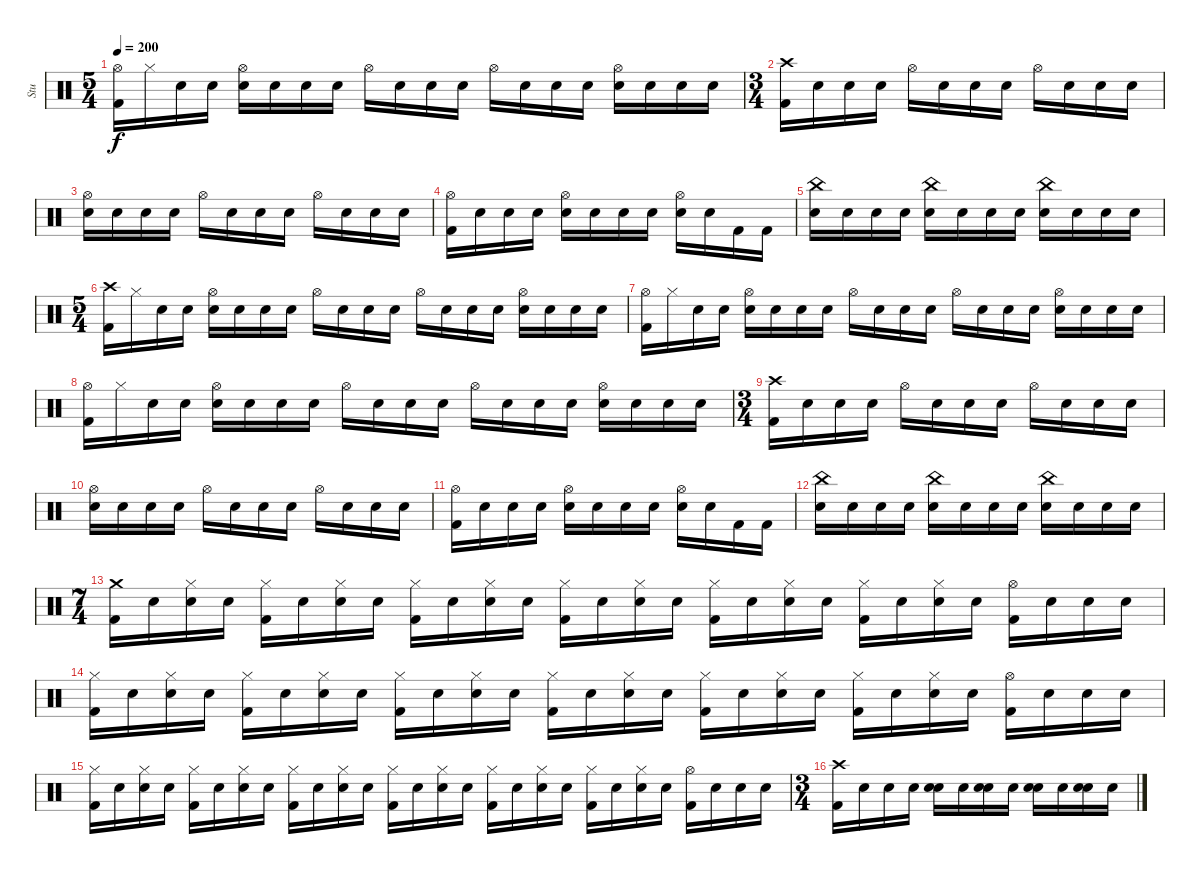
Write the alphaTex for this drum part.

\track ("Stu" "Stu") {instrument percussion}
\staff {score}
\articulation defaults
\ts (5 4)
\tempo 200
\clef neutral
\ks c
("Hi-Hat (open)" "Kick (hit) 2").16{dy f} "Hi-Hat (closed)"{x}.16 "Snare (hit)"{x}.16 "Snare (hit)"{x}.16 ("Electric Snare (hit)"{x} "Hi-Hat (open)").16 "Snare (hit)"{x}.16 "Snare (hit)"{x}.16 "Snare (hit)"{x}.16 "Hi-Hat (open)".16 "Snare (hit)"{x}.16 "Snare (hit)"{x}.16 "Snare (hit)"{x}.16 "Hi-Hat (open)".16 "Snare (hit)"{x}.16 "Snare (hit)"{x}.16 "Snare (hit)"{x}.16 ("Electric Snare (hit)" "Hi-Hat (open)").16 "Snare (hit)"{x}.16 "Snare (hit)"{x}.16 "Snare (hit)"{x}.16 |
\ts (3 4)
("Crash high (hit)" "Kick (hit) 2").16 "Snare (hit)"{x}.16 "Snare (hit)"{x}.16 "Snare (hit)"{x}.16 "Hi-Hat (open)".16 "Snare (hit)"{x}.16 "Snare (hit)"{x}.16 "Snare (hit)"{x}.16 "Hi-Hat (open)".16 "Snare (hit)"{x}.16 "Snare (hit)"{x}.16 "Snare (hit)"{x}.16 |
("Electric Snare (hit)" "Hi-Hat (open)").16 "Snare (hit)"{x}.16 "Snare (hit)"{x}.16 "Snare (hit)"{x}.16 "Hi-Hat (open)".16 "Snare (hit)"{x}.16 "Snare (hit)"{x}.16 "Snare (hit)"{x}.16 "Hi-Hat (open)".16 "Snare (hit)"{x}.16 "Snare (hit)"{x}.16 "Snare (hit)"{x}.16 |
("Hi-Hat (open)" "Kick (hit) 2").16 "Snare (hit)"{x}.16 "Snare (hit)"{x}.16 "Snare (hit)"{x}.16 ("Hi-Hat (open)" "Snare (hit)"{x}).16 "Snare (hit)"{x}.16 "Snare (hit)"{x}.16 "Snare (hit)"{x}.16 ("Hi-Hat (open)" "Snare (hit)"{x}).16 "Snare (hit)"{x}.16 "Kick (hit) 2".16 "Kick (hit) 2".16 |
("China (hit)" "Electric Snare (hit)").16 "Snare (hit)"{x}.16 "Snare (hit)"{x}.16 "Snare (hit)"{x}.16 ("China (hit)" "Electric Snare (hit)").16 "Snare (hit)"{x}.16 "Snare (hit)"{x}.16 "Snare (hit)"{x}.16 ("China (hit)" "Electric Snare (hit)").16 "Snare (hit)"{x}.16 "Snare (hit)"{x}.16 "Snare (hit)"{x}.16 |
\ts (5 4)
("Crash high (hit)" "Kick (hit) 2").16 "Hi-Hat (closed)"{x}.16 "Snare (hit)"{x}.16 "Snare (hit)"{x}.16 ("Electric Snare (hit)"{x} "Hi-Hat (open)").16 "Snare (hit)"{x}.16 "Snare (hit)"{x}.16 "Snare (hit)"{x}.16 "Hi-Hat (open)".16 "Snare (hit)"{x}.16 "Snare (hit)"{x}.16 "Snare (hit)"{x}.16 "Hi-Hat (open)".16 "Snare (hit)"{x}.16 "Snare (hit)"{x}.16 "Snare (hit)"{x}.16 ("Electric Snare (hit)" "Hi-Hat (open)").16 "Snare (hit)"{x}.16 "Snare (hit)"{x}.16 "Snare (hit)"{x}.16 |
("Hi-Hat (open)" "Kick (hit) 2").16 "Hi-Hat (closed)"{x}.16 "Snare (hit)"{x}.16 "Snare (hit)"{x}.16 ("Electric Snare (hit)"{x} "Hi-Hat (open)").16 "Snare (hit)"{x}.16 "Snare (hit)"{x}.16 "Snare (hit)"{x}.16 "Hi-Hat (open)".16 "Snare (hit)"{x}.16 "Snare (hit)"{x}.16 "Snare (hit)"{x}.16 "Hi-Hat (open)".16 "Snare (hit)"{x}.16 "Snare (hit)"{x}.16 "Snare (hit)"{x}.16 ("Electric Snare (hit)" "Hi-Hat (open)").16 "Snare (hit)"{x}.16 "Snare (hit)"{x}.16 "Snare (hit)"{x}.16 |
("Hi-Hat (open)" "Kick (hit) 2").16 "Hi-Hat (closed)"{x}.16 "Snare (hit)"{x}.16 "Snare (hit)"{x}.16 ("Electric Snare (hit)"{x} "Hi-Hat (open)").16 "Snare (hit)"{x}.16 "Snare (hit)"{x}.16 "Snare (hit)"{x}.16 "Hi-Hat (open)".16 "Snare (hit)"{x}.16 "Snare (hit)"{x}.16 "Snare (hit)"{x}.16 "Hi-Hat (open)".16 "Snare (hit)"{x}.16 "Snare (hit)"{x}.16 "Snare (hit)"{x}.16 ("Electric Snare (hit)" "Hi-Hat (open)").16 "Snare (hit)"{x}.16 "Snare (hit)"{x}.16 "Snare (hit)"{x}.16 |
\ts (3 4)
("Crash high (hit)" "Kick (hit) 2").16 "Snare (hit)"{x}.16 "Snare (hit)"{x}.16 "Snare (hit)"{x}.16 "Hi-Hat (open)".16 "Snare (hit)"{x}.16 "Snare (hit)"{x}.16 "Snare (hit)"{x}.16 "Hi-Hat (open)".16 "Snare (hit)"{x}.16 "Snare (hit)"{x}.16 "Snare (hit)"{x}.16 |
("Electric Snare (hit)" "Hi-Hat (open)").16 "Snare (hit)"{x}.16 "Snare (hit)"{x}.16 "Snare (hit)"{x}.16 "Hi-Hat (open)".16 "Snare (hit)"{x}.16 "Snare (hit)"{x}.16 "Snare (hit)"{x}.16 "Hi-Hat (open)".16 "Snare (hit)"{x}.16 "Snare (hit)"{x}.16 "Snare (hit)"{x}.16 |
("Hi-Hat (open)" "Kick (hit) 2").16 "Snare (hit)"{x}.16 "Snare (hit)"{x}.16 "Snare (hit)"{x}.16 ("Hi-Hat (open)" "Snare (hit)"{x}).16 "Snare (hit)"{x}.16 "Snare (hit)"{x}.16 "Snare (hit)"{x}.16 ("Hi-Hat (open)" "Snare (hit)"{x}).16 "Snare (hit)"{x}.16 "Kick (hit) 2".16 "Kick (hit) 2".16 |
("China (hit)" "Electric Snare (hit)").16 "Snare (hit)"{x}.16 "Snare (hit)"{x}.16 "Snare (hit)"{x}.16 ("China (hit)" "Electric Snare (hit)").16 "Snare (hit)"{x}.16 "Snare (hit)"{x}.16 "Snare (hit)"{x}.16 ("China (hit)" "Electric Snare (hit)").16 "Snare (hit)"{x}.16 "Snare (hit)"{x}.16 "Snare (hit)"{x}.16 |
\ts (7 4)
("Crash medium (hit)" "Kick (hit) 2").16 "Snare (hit)"{x}.16 ("Hi-Hat (closed)" "Snare (hit)"{x}).16 "Snare (hit)"{x}.16 ("Hi-Hat (closed)" "Kick (hit) 2").16 "Snare (hit)"{x}.16 ("Hi-Hat (closed)" "Snare (hit)"{x}).16 "Snare (hit)"{x}.16 ("Hi-Hat (closed)" "Kick (hit) 2").16 "Snare (hit)"{x}.16 ("Hi-Hat (closed)" "Snare (hit)"{x}).16 "Snare (hit)"{x}.16 ("Hi-Hat (closed)" "Kick (hit) 2").16 "Snare (hit)"{x}.16 ("Hi-Hat (closed)" "Snare (hit)"{x}).16 "Snare (hit)"{x}.16 ("Hi-Hat (closed)" "Kick (hit) 2").16 "Snare (hit)"{x}.16 ("Hi-Hat (closed)" "Snare (hit)"{x}).16 "Snare (hit)"{x}.16 ("Hi-Hat (closed)" "Kick (hit) 2").16 "Snare (hit)"{x}.16 ("Hi-Hat (closed)" "Snare (hit)"{x}).16 "Snare (hit)"{x}.16 ("Hi-Hat (open)" "Kick (hit) 2").16 "Snare (hit)"{x}.16 "Snare (hit)"{x}.16 "Snare (hit)"{x}.16 |
("Hi-Hat (closed)" "Kick (hit) 2").16 "Snare (hit)"{x}.16 ("Hi-Hat (closed)" "Snare (hit)"{x}).16 "Snare (hit)"{x}.16 ("Hi-Hat (closed)" "Kick (hit) 2").16 "Snare (hit)"{x}.16 ("Hi-Hat (closed)" "Snare (hit)"{x}).16 "Snare (hit)"{x}.16 ("Hi-Hat (closed)" "Kick (hit) 2").16 "Snare (hit)"{x}.16 ("Hi-Hat (closed)" "Snare (hit)"{x}).16 "Snare (hit)"{x}.16 ("Hi-Hat (closed)" "Kick (hit) 2").16 "Snare (hit)"{x}.16 ("Hi-Hat (closed)" "Snare (hit)"{x}).16 "Snare (hit)"{x}.16 ("Hi-Hat (closed)" "Kick (hit) 2").16 "Snare (hit)"{x}.16 ("Hi-Hat (closed)" "Snare (hit)"{x}).16 "Snare (hit)"{x}.16 ("Hi-Hat (closed)" "Kick (hit) 2").16 "Snare (hit)"{x}.16 ("Hi-Hat (closed)" "Snare (hit)"{x}).16 "Snare (hit)"{x}.16 ("Hi-Hat (open)" "Kick (hit) 2").16 "Snare (hit)"{x}.16 "Snare (hit)"{x}.16 "Snare (hit)"{x}.16 |
("Hi-Hat (closed)" "Kick (hit) 2").16 "Snare (hit)"{x}.16 ("Hi-Hat (closed)" "Snare (hit)"{x}).16 "Snare (hit)"{x}.16 ("Hi-Hat (closed)" "Kick (hit) 2").16 "Snare (hit)"{x}.16 ("Hi-Hat (closed)" "Snare (hit)"{x}).16 "Snare (hit)"{x}.16 ("Hi-Hat (closed)" "Kick (hit) 2").16 "Snare (hit)"{x}.16 ("Hi-Hat (closed)" "Snare (hit)"{x}).16 "Snare (hit)"{x}.16 ("Hi-Hat (closed)" "Kick (hit) 2").16 "Snare (hit)"{x}.16 ("Hi-Hat (closed)" "Snare (hit)"{x}).16 "Snare (hit)"{x}.16 ("Hi-Hat (closed)" "Kick (hit) 2").16 "Snare (hit)"{x}.16 ("Hi-Hat (closed)" "Snare (hit)"{x}).16 "Snare (hit)"{x}.16 ("Hi-Hat (closed)" "Kick (hit) 2").16 "Snare (hit)"{x}.16 ("Hi-Hat (closed)" "Snare (hit)"{x}).16 "Snare (hit)"{x}.16 ("Hi-Hat (open)" "Kick (hit) 2").16 "Snare (hit)"{x}.16 "Snare (hit)"{x}.16 "Snare (hit)"{x}.16 |
\ts (3 4)
("Crash high (hit)" "Kick (hit) 2").16 "Snare (hit)"{x}.16 "Snare (hit)"{x}.16 "Snare (hit)"{x}.16 ("Electric Snare (hit)" "Snare (hit)"{x}).16 "Snare (hit)"{x}.16 ("Electric Snare (hit)" "Snare (hit)"{x}).16 "Snare (hit)"{x}.16 ("Electric Snare (hit)" "Snare (hit)"{x}).16 "Snare (hit)"{x}.16 ("Electric Snare (hit)" "Snare (hit)"{x}).16 "Snare (hit)"{x}.16
